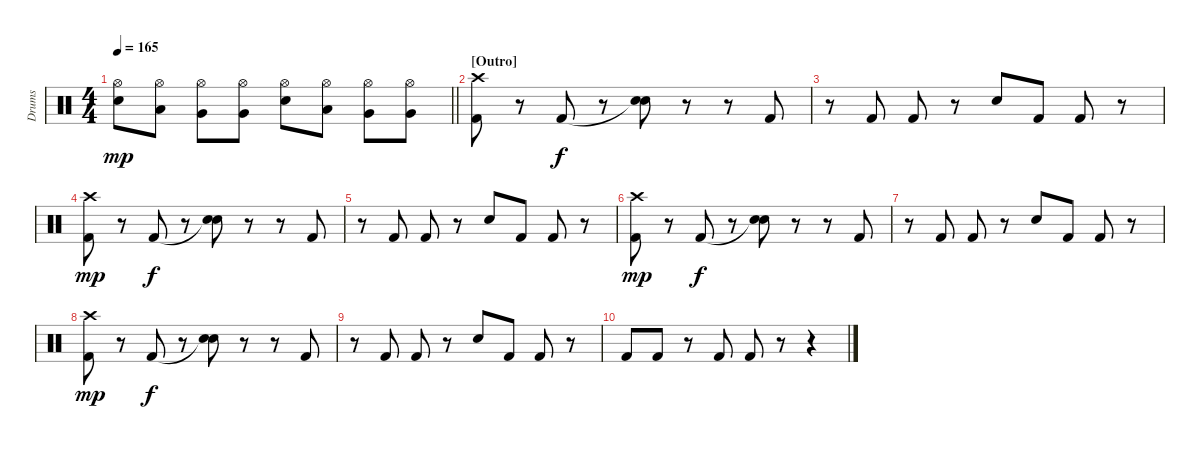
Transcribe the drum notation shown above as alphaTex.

\track ("Drums" "Drums") {instrument percussion}
\staff {score}
\articulation defaults
\ts (4 4)
\tempo 165
\clef neutral
\barLineRight lightlight
\ks c
("Hi-Hat (open)" "Electric Snare (hit)").8{dy mp} ("Hi-Hat (open)" "Low Tom (hit)").8 ("Hi-Hat (open)" "Very Low Tom (hit)").8 ("Hi-Hat (open)" "Very Low Tom (hit)").8 ("Hi-Hat (open)" "Electric Snare (hit)").8 ("Hi-Hat (open)" "Low Tom (hit)").8 ("Hi-Hat (open)" "Very Low Tom (hit)").8 ("Hi-Hat (open)" "Very Low Tom (hit)").8 |
\section ("" "[Outro]")
("Crash high (hit)" "Kick (hit) 2").8 r.8 "Kick (hit) 2".8{dy f} r.8 ("Snare (hit)"{t} "Electric Snare (hit)").8 r.8 r.8 "Kick (hit) 2".8 |
r.8 "Kick (hit) 2".8 "Kick (hit) 2".8 r.8 "Electric Snare (hit)".8 "Kick (hit) 2".8 "Kick (hit) 2".8 r.8 |
("Crash high (hit)" "Kick (hit) 2").8{dy mp} r.8 "Kick (hit) 2".8{dy f} r.8 ("Snare (hit)"{t} "Electric Snare (hit)").8 r.8 r.8 "Kick (hit) 2".8 |
r.8 "Kick (hit) 2".8 "Kick (hit) 2".8 r.8 "Electric Snare (hit)".8 "Kick (hit) 2".8 "Kick (hit) 2".8 r.8 |
("Crash high (hit)" "Kick (hit) 2").8{dy mp} r.8 "Kick (hit) 2".8{dy f} r.8 ("Snare (hit)"{t} "Electric Snare (hit)").8 r.8 r.8 "Kick (hit) 2".8 |
r.8 "Kick (hit) 2".8 "Kick (hit) 2".8 r.8 "Electric Snare (hit)".8 "Kick (hit) 2".8 "Kick (hit) 2".8 r.8 |
("Crash high (hit)" "Kick (hit) 2").8{dy mp} r.8 "Kick (hit) 2".8{dy f} r.8 ("Snare (hit)"{t} "Electric Snare (hit)").8 r.8 r.8 "Kick (hit) 2".8 |
r.8 "Kick (hit) 2".8 "Kick (hit) 2".8 r.8 "Electric Snare (hit)".8 "Kick (hit) 2".8 "Kick (hit) 2".8 r.8 |
"Kick (hit) 2".8 "Kick (hit) 2".8 r.8 "Kick (hit) 2".8 "Kick (hit) 2".8 r.8 r.4
